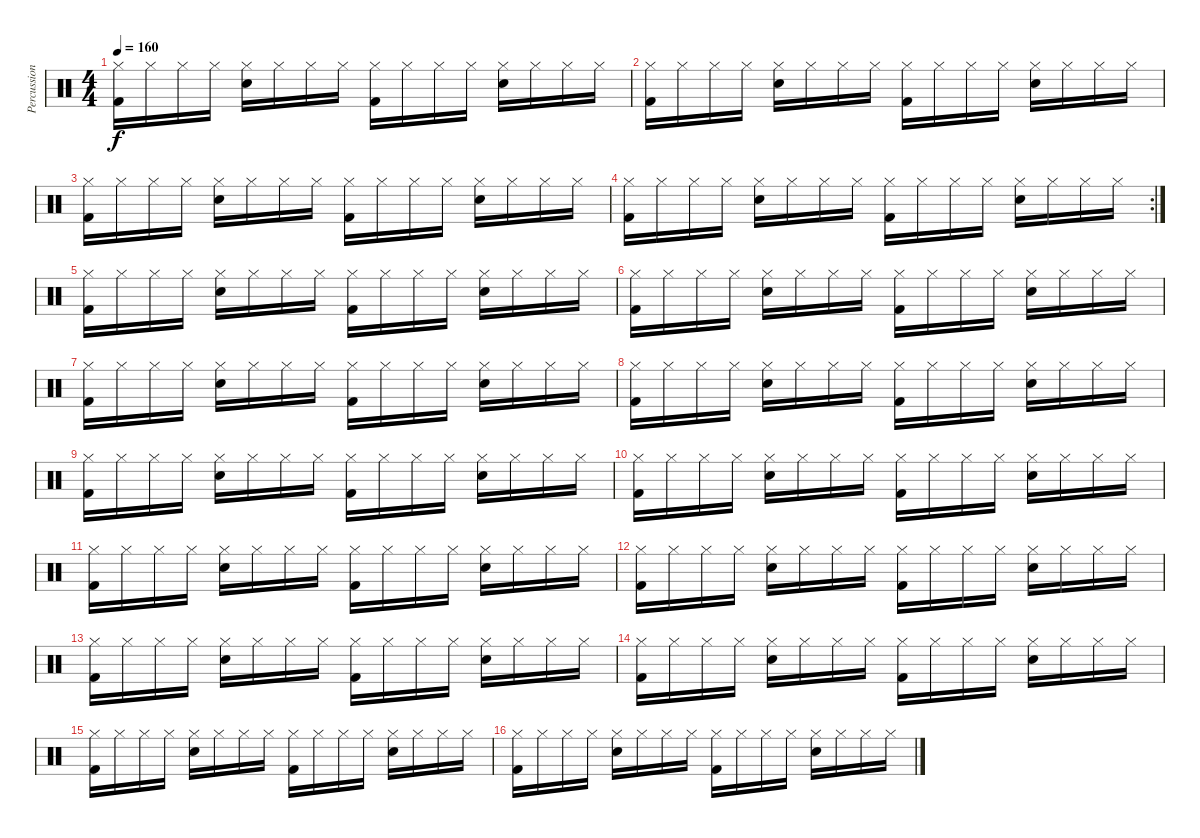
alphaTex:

\track ("Percussion" "Percussion") {instrument percussion}
\staff {score}
\articulation defaults
\ts (4 4)
\tempo 160
\clef neutral
\ks c
("Hi-Hat (closed)" "Kick (hit) 2").16{dy f} "Hi-Hat (closed)".16 "Hi-Hat (closed)".16 "Hi-Hat (closed)".16 ("Hi-Hat (closed)" "Snare (hit) 2").16 "Hi-Hat (closed)".16 "Hi-Hat (closed)".16 "Hi-Hat (closed)".16 ("Hi-Hat (closed)" "Kick (hit) 2").16 "Hi-Hat (closed)".16 "Hi-Hat (closed)".16 "Hi-Hat (closed)".16 ("Hi-Hat (closed)" "Snare (hit) 2").16 "Hi-Hat (closed)".16 "Hi-Hat (closed)".16 "Hi-Hat (closed)".16 |
("Hi-Hat (closed)" "Kick (hit) 2").16 "Hi-Hat (closed)".16 "Hi-Hat (closed)".16 "Hi-Hat (closed)".16 ("Hi-Hat (closed)" "Snare (hit) 2").16 "Hi-Hat (closed)".16 "Hi-Hat (closed)".16 "Hi-Hat (closed)".16 ("Hi-Hat (closed)" "Kick (hit) 2").16 "Hi-Hat (closed)".16 "Hi-Hat (closed)".16 "Hi-Hat (closed)".16 ("Hi-Hat (closed)" "Snare (hit) 2").16 "Hi-Hat (closed)".16 "Hi-Hat (closed)".16 "Hi-Hat (closed)".16 |
("Hi-Hat (closed)" "Kick (hit) 2").16 "Hi-Hat (closed)".16 "Hi-Hat (closed)".16 "Hi-Hat (closed)".16 ("Hi-Hat (closed)" "Snare (hit) 2").16 "Hi-Hat (closed)".16 "Hi-Hat (closed)".16 "Hi-Hat (closed)".16 ("Hi-Hat (closed)" "Kick (hit) 2").16 "Hi-Hat (closed)".16 "Hi-Hat (closed)".16 "Hi-Hat (closed)".16 ("Hi-Hat (closed)" "Snare (hit) 2").16 "Hi-Hat (closed)".16 "Hi-Hat (closed)".16 "Hi-Hat (closed)".16 |
\rc 2
("Hi-Hat (closed)" "Kick (hit) 2").16 "Hi-Hat (closed)".16 "Hi-Hat (closed)".16 "Hi-Hat (closed)".16 ("Hi-Hat (closed)" "Snare (hit) 2").16 "Hi-Hat (closed)".16 "Hi-Hat (closed)".16 "Hi-Hat (closed)".16 ("Hi-Hat (closed)" "Kick (hit) 2").16 "Hi-Hat (closed)".16 "Hi-Hat (closed)".16 "Hi-Hat (closed)".16 ("Hi-Hat (closed)" "Snare (hit) 2").16 "Hi-Hat (closed)".16 "Hi-Hat (closed)".16 "Hi-Hat (closed)".16 |
("Hi-Hat (closed)" "Kick (hit) 2").16 "Hi-Hat (closed)".16 "Hi-Hat (closed)".16 "Hi-Hat (closed)".16 ("Hi-Hat (closed)" "Snare (hit) 2").16 "Hi-Hat (closed)".16 "Hi-Hat (closed)".16 "Hi-Hat (closed)".16 ("Hi-Hat (closed)" "Kick (hit) 2").16 "Hi-Hat (closed)".16 "Hi-Hat (closed)".16 "Hi-Hat (closed)".16 ("Hi-Hat (closed)" "Snare (hit) 2").16 "Hi-Hat (closed)".16 "Hi-Hat (closed)".16 "Hi-Hat (closed)".16 |
("Hi-Hat (closed)" "Kick (hit) 2").16 "Hi-Hat (closed)".16 "Hi-Hat (closed)".16 "Hi-Hat (closed)".16 ("Hi-Hat (closed)" "Snare (hit) 2").16 "Hi-Hat (closed)".16 "Hi-Hat (closed)".16 "Hi-Hat (closed)".16 ("Hi-Hat (closed)" "Kick (hit) 2").16 "Hi-Hat (closed)".16 "Hi-Hat (closed)".16 "Hi-Hat (closed)".16 ("Hi-Hat (closed)" "Snare (hit) 2").16 "Hi-Hat (closed)".16 "Hi-Hat (closed)".16 "Hi-Hat (closed)".16 |
("Hi-Hat (closed)" "Kick (hit) 2").16 "Hi-Hat (closed)".16 "Hi-Hat (closed)".16 "Hi-Hat (closed)".16 ("Hi-Hat (closed)" "Snare (hit) 2").16 "Hi-Hat (closed)".16 "Hi-Hat (closed)".16 "Hi-Hat (closed)".16 ("Hi-Hat (closed)" "Kick (hit) 2").16 "Hi-Hat (closed)".16 "Hi-Hat (closed)".16 "Hi-Hat (closed)".16 ("Hi-Hat (closed)" "Snare (hit) 2").16 "Hi-Hat (closed)".16 "Hi-Hat (closed)".16 "Hi-Hat (closed)".16 |
("Hi-Hat (closed)" "Kick (hit) 2").16 "Hi-Hat (closed)".16 "Hi-Hat (closed)".16 "Hi-Hat (closed)".16 ("Hi-Hat (closed)" "Snare (hit) 2").16 "Hi-Hat (closed)".16 "Hi-Hat (closed)".16 "Hi-Hat (closed)".16 ("Hi-Hat (closed)" "Kick (hit) 2").16 "Hi-Hat (closed)".16 "Hi-Hat (closed)".16 "Hi-Hat (closed)".16 ("Hi-Hat (closed)" "Snare (hit) 2").16 "Hi-Hat (closed)".16 "Hi-Hat (closed)".16 "Hi-Hat (closed)".16 |
("Hi-Hat (closed)" "Kick (hit) 2").16 "Hi-Hat (closed)".16 "Hi-Hat (closed)".16 "Hi-Hat (closed)".16 ("Hi-Hat (closed)" "Snare (hit) 2").16 "Hi-Hat (closed)".16 "Hi-Hat (closed)".16 "Hi-Hat (closed)".16 ("Hi-Hat (closed)" "Kick (hit) 2").16 "Hi-Hat (closed)".16 "Hi-Hat (closed)".16 "Hi-Hat (closed)".16 ("Hi-Hat (closed)" "Snare (hit) 2").16 "Hi-Hat (closed)".16 "Hi-Hat (closed)".16 "Hi-Hat (closed)".16 |
("Hi-Hat (closed)" "Kick (hit) 2").16 "Hi-Hat (closed)".16 "Hi-Hat (closed)".16 "Hi-Hat (closed)".16 ("Hi-Hat (closed)" "Snare (hit) 2").16 "Hi-Hat (closed)".16 "Hi-Hat (closed)".16 "Hi-Hat (closed)".16 ("Hi-Hat (closed)" "Kick (hit) 2").16 "Hi-Hat (closed)".16 "Hi-Hat (closed)".16 "Hi-Hat (closed)".16 ("Hi-Hat (closed)" "Snare (hit) 2").16 "Hi-Hat (closed)".16 "Hi-Hat (closed)".16 "Hi-Hat (closed)".16 |
("Hi-Hat (closed)" "Kick (hit) 2").16 "Hi-Hat (closed)".16 "Hi-Hat (closed)".16 "Hi-Hat (closed)".16 ("Hi-Hat (closed)" "Snare (hit) 2").16 "Hi-Hat (closed)".16 "Hi-Hat (closed)".16 "Hi-Hat (closed)".16 ("Hi-Hat (closed)" "Kick (hit) 2").16 "Hi-Hat (closed)".16 "Hi-Hat (closed)".16 "Hi-Hat (closed)".16 ("Hi-Hat (closed)" "Snare (hit) 2").16 "Hi-Hat (closed)".16 "Hi-Hat (closed)".16 "Hi-Hat (closed)".16 |
("Hi-Hat (closed)" "Kick (hit) 2").16 "Hi-Hat (closed)".16 "Hi-Hat (closed)".16 "Hi-Hat (closed)".16 ("Hi-Hat (closed)" "Snare (hit) 2").16 "Hi-Hat (closed)".16 "Hi-Hat (closed)".16 "Hi-Hat (closed)".16 ("Hi-Hat (closed)" "Kick (hit) 2").16 "Hi-Hat (closed)".16 "Hi-Hat (closed)".16 "Hi-Hat (closed)".16 ("Hi-Hat (closed)" "Snare (hit) 2").16 "Hi-Hat (closed)".16 "Hi-Hat (closed)".16 "Hi-Hat (closed)".16 |
("Hi-Hat (closed)" "Kick (hit) 2").16 "Hi-Hat (closed)".16 "Hi-Hat (closed)".16 "Hi-Hat (closed)".16 ("Hi-Hat (closed)" "Snare (hit) 2").16 "Hi-Hat (closed)".16 "Hi-Hat (closed)".16 "Hi-Hat (closed)".16 ("Hi-Hat (closed)" "Kick (hit) 2").16 "Hi-Hat (closed)".16 "Hi-Hat (closed)".16 "Hi-Hat (closed)".16 ("Hi-Hat (closed)" "Snare (hit) 2").16 "Hi-Hat (closed)".16 "Hi-Hat (closed)".16 "Hi-Hat (closed)".16 |
("Hi-Hat (closed)" "Kick (hit) 2").16 "Hi-Hat (closed)".16 "Hi-Hat (closed)".16 "Hi-Hat (closed)".16 ("Hi-Hat (closed)" "Snare (hit) 2").16 "Hi-Hat (closed)".16 "Hi-Hat (closed)".16 "Hi-Hat (closed)".16 ("Hi-Hat (closed)" "Kick (hit) 2").16 "Hi-Hat (closed)".16 "Hi-Hat (closed)".16 "Hi-Hat (closed)".16 ("Hi-Hat (closed)" "Snare (hit) 2").16 "Hi-Hat (closed)".16 "Hi-Hat (closed)".16 "Hi-Hat (closed)".16 |
("Hi-Hat (closed)" "Kick (hit) 2").16 "Hi-Hat (closed)".16 "Hi-Hat (closed)".16 "Hi-Hat (closed)".16 ("Hi-Hat (closed)" "Snare (hit) 2").16 "Hi-Hat (closed)".16 "Hi-Hat (closed)".16 "Hi-Hat (closed)".16 ("Hi-Hat (closed)" "Kick (hit) 2").16 "Hi-Hat (closed)".16 "Hi-Hat (closed)".16 "Hi-Hat (closed)".16 ("Hi-Hat (closed)" "Snare (hit) 2").16 "Hi-Hat (closed)".16 "Hi-Hat (closed)".16 "Hi-Hat (closed)".16 |
("Hi-Hat (closed)" "Kick (hit) 2").16 "Hi-Hat (closed)".16 "Hi-Hat (closed)".16 "Hi-Hat (closed)".16 ("Hi-Hat (closed)" "Snare (hit) 2").16 "Hi-Hat (closed)".16 "Hi-Hat (closed)".16 "Hi-Hat (closed)".16 ("Hi-Hat (closed)" "Kick (hit) 2").16 "Hi-Hat (closed)".16 "Hi-Hat (closed)".16 "Hi-Hat (closed)".16 ("Hi-Hat (closed)" "Snare (hit) 2").16 "Hi-Hat (closed)".16 "Hi-Hat (closed)".16 "Hi-Hat (closed)".16
